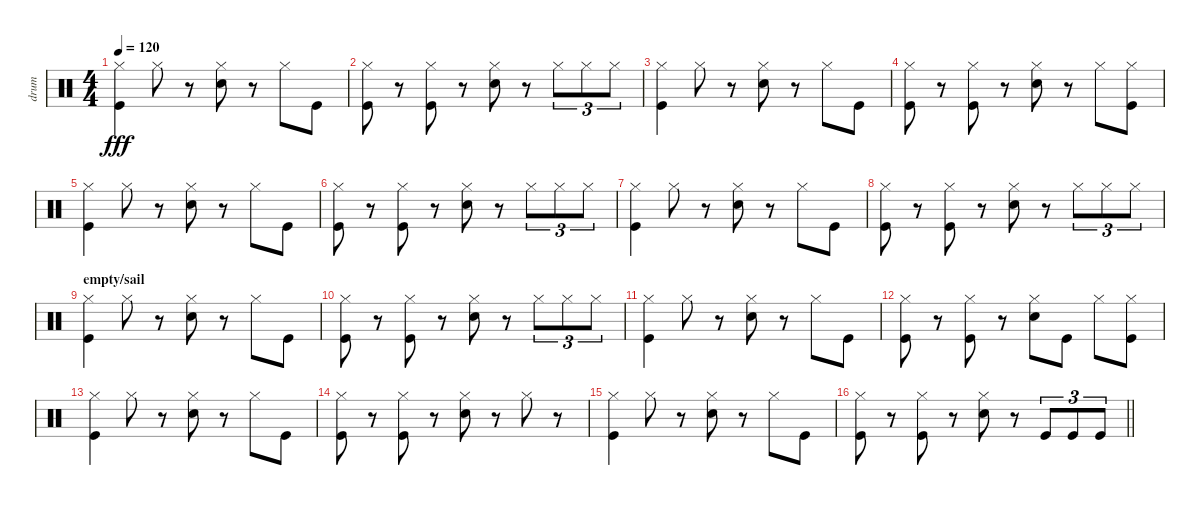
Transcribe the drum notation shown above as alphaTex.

\track ("drum" "drum") {instrument percussion}
\staff {score}
\articulation defaults
\ts (4 4)
\tempo 120
\clef neutral
\ks c
("Hi-Hat (closed)" "Kick (hit)").4{dy fff} "Hi-Hat (closed)".8 r.8 ("Hi-Hat (closed)" "Hand Clap (hit)").8 r.8 "Hi-Hat (closed)".8 "Kick (hit)".8 |
("Hi-Hat (closed)" "Kick (hit)").8 r.8 ("Hi-Hat (closed)" "Kick (hit)").8 r.8 ("Hi-Hat (closed)" "Hand Clap (hit)").8 r.8 "Hi-Hat (closed)".8{tu (3 2)} "Hi-Hat (closed)".8{tu (3 2)} "Hi-Hat (closed)".8{tu (3 2)} |
("Hi-Hat (closed)" "Kick (hit)").4 "Hi-Hat (closed)".8 r.8 ("Hi-Hat (closed)" "Hand Clap (hit)").8 r.8 "Hi-Hat (closed)".8 "Kick (hit)".8 |
("Hi-Hat (closed)" "Kick (hit)").8 r.8 ("Hi-Hat (closed)" "Kick (hit)").8 r.8 ("Hi-Hat (closed)" "Hand Clap (hit)").8 r.8 "Hi-Hat (closed)".8 ("Hi-Hat (closed)" "Kick (hit)").8 |
("Hi-Hat (closed)" "Kick (hit)").4 "Hi-Hat (closed)".8 r.8 ("Hi-Hat (closed)" "Hand Clap (hit)").8 r.8 "Hi-Hat (closed)".8 "Kick (hit)".8 |
("Hi-Hat (closed)" "Kick (hit)").8 r.8 ("Hi-Hat (closed)" "Kick (hit)").8 r.8 ("Hi-Hat (closed)" "Hand Clap (hit)").8 r.8 "Hi-Hat (closed)".8{tu (3 2)} "Hi-Hat (closed)".8{tu (3 2)} "Hi-Hat (closed)".8{tu (3 2)} |
("Hi-Hat (closed)" "Kick (hit)").4 "Hi-Hat (closed)".8 r.8 ("Hi-Hat (closed)" "Hand Clap (hit)").8 r.8 "Hi-Hat (closed)".8 "Kick (hit)".8 |
("Hi-Hat (closed)" "Kick (hit)").8 r.8 ("Hi-Hat (closed)" "Kick (hit)").8 r.8 ("Hi-Hat (closed)" "Hand Clap (hit)").8 r.8 "Hi-Hat (closed)".8{tu (3 2)} "Hi-Hat (closed)".8{tu (3 2)} "Hi-Hat (closed)".8{tu (3 2)} |
\section ("" "empty/sail")
("Hi-Hat (closed)" "Kick (hit)").4 "Hi-Hat (closed)".8 r.8 ("Hi-Hat (closed)" "Hand Clap (hit)").8 r.8 "Hi-Hat (closed)".8 "Kick (hit)".8 |
("Hi-Hat (closed)" "Kick (hit)").8 r.8 ("Hi-Hat (closed)" "Kick (hit)").8 r.8 ("Hi-Hat (closed)" "Hand Clap (hit)").8 r.8 "Hi-Hat (closed)".8{tu (3 2)} "Hi-Hat (closed)".8{tu (3 2)} "Hi-Hat (closed)".8{tu (3 2)} |
("Hi-Hat (closed)" "Kick (hit)").4 "Hi-Hat (closed)".8 r.8 ("Hi-Hat (closed)" "Hand Clap (hit)").8 r.8 "Hi-Hat (closed)".8 "Kick (hit)".8 |
("Hi-Hat (closed)" "Kick (hit)").8 r.8 ("Hi-Hat (closed)" "Kick (hit)").8 r.8 ("Hi-Hat (closed)" "Hand Clap (hit)").8 "Kick (hit)".8 "Hi-Hat (closed)".8 ("Hi-Hat (closed)" "Kick (hit)").8 |
("Hi-Hat (closed)" "Kick (hit)").4 "Hi-Hat (closed)".8 r.8 ("Hi-Hat (closed)" "Hand Clap (hit)").8 r.8 "Hi-Hat (closed)".8 "Kick (hit)".8 |
("Hi-Hat (closed)" "Kick (hit)").8 r.8 ("Hi-Hat (closed)" "Kick (hit)").8 r.8 ("Hi-Hat (closed)" "Hand Clap (hit)").8 r.8 "Hi-Hat (closed)".8 r.8 |
("Hi-Hat (closed)" "Kick (hit)").4 "Hi-Hat (closed)".8 r.8 ("Hi-Hat (closed)" "Hand Clap (hit)").8 r.8 "Hi-Hat (closed)".8 "Kick (hit)".8 |
\barLineRight lightlight
("Hi-Hat (closed)" "Kick (hit)").8 r.8 ("Hi-Hat (closed)" "Kick (hit)").8 r.8 ("Hi-Hat (closed)" "Hand Clap (hit)").8 r.8 "Kick (hit)".8{tu (3 2)} "Kick (hit)".8{tu (3 2)} "Kick (hit)".8{tu (3 2)}
